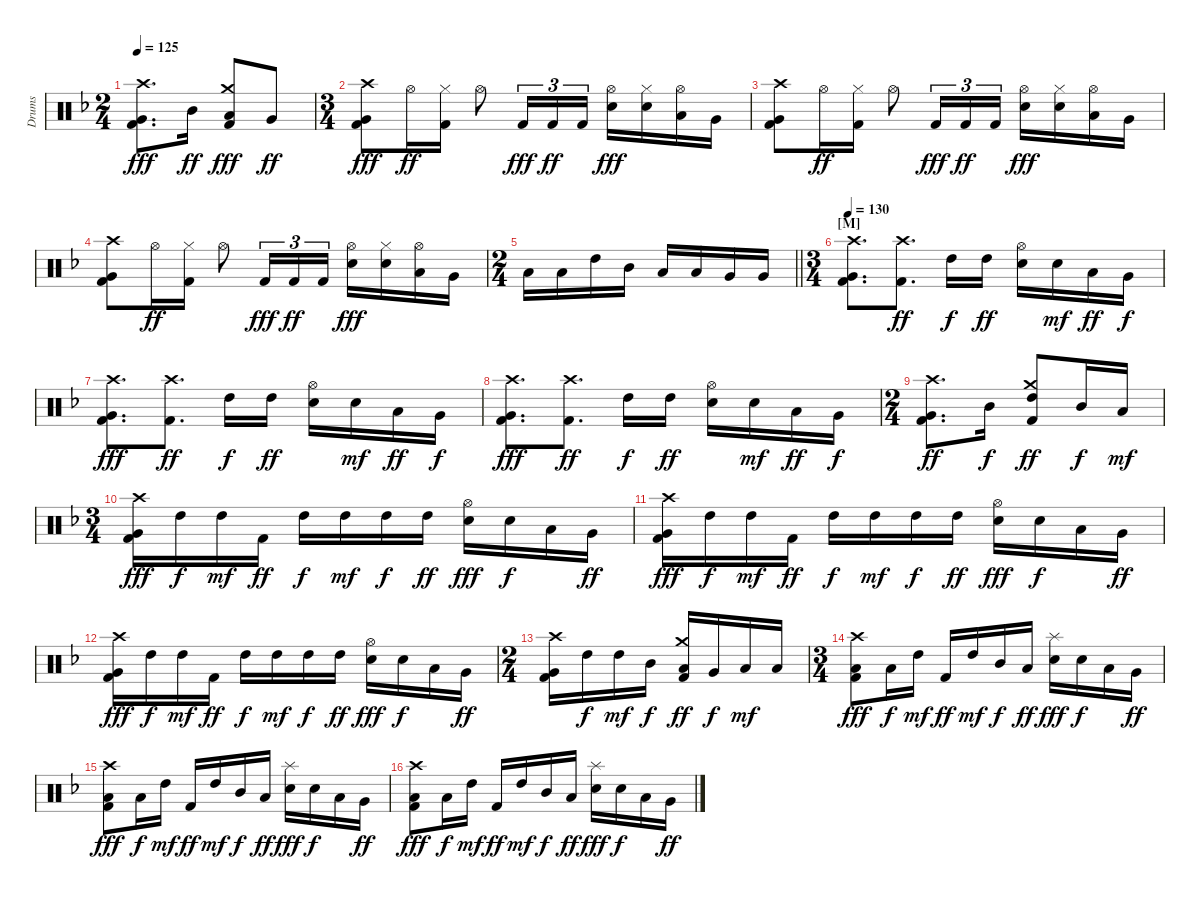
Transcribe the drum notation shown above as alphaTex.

\track ("Drums" "Drums") {instrument percussion}
\staff {score}
\articulation defaults
\ts (2 4)
\tempo 125
\clef neutral
\ks dminor
("Crash high (hit)" "Very Low Tom (hit)" "Kick (hit) 2").8{d dy fff} "Mid Tom (hit)".16{dy ff} ("Crash medium (hit)" "Low Tom (hit)" "Kick (hit) 2").8{dy fff} "Very Low Tom (hit)".8{dy ff} |
\ts (3 4)
("Crash high (hit)" "Very Low Tom (hit)" "Kick (hit) 2").8{dy fff} "Hi-Hat (open)".16{dy ff} ("Hi-Hat (closed)" "Kick (hit) 2").16 "Hi-Hat (open)".8 "Kick (hit) 2".16{tu (3 2) dy fff} "Kick (hit) 2".16{tu (3 2) dy ff} "Kick (hit) 2".16{tu (3 2)} ("Hi-Hat (open)" "Snare (hit) 2").16{dy fff} ("Hi-Hat (closed)" "Snare (hit) 2").16 ("Hi-Hat (open)" "Low Tom (hit)").16 "Very Low Tom (hit)".16 |
("Crash high (hit)" "Very Low Tom (hit)" "Kick (hit) 2").8 "Hi-Hat (open)".16{dy ff} ("Hi-Hat (closed)" "Kick (hit) 2").16 "Hi-Hat (open)".8 "Kick (hit) 2".16{tu (3 2) dy fff} "Kick (hit) 2".16{tu (3 2) dy ff} "Kick (hit) 2".16{tu (3 2)} ("Hi-Hat (open)" "Snare (hit) 2").16{dy fff} ("Hi-Hat (closed)" "Snare (hit) 2").16 ("Hi-Hat (open)" "Low Tom (hit)").16 "Very Low Tom (hit)".16 |
("Crash high (hit)" "Very Low Tom (hit)" "Kick (hit) 2").8 "Hi-Hat (open)".16{dy ff} ("Hi-Hat (closed)" "Kick (hit) 2").16 "Hi-Hat (open)".8 "Kick (hit) 2".16{tu (3 2) dy fff} "Kick (hit) 2".16{tu (3 2) dy ff} "Kick (hit) 2".16{tu (3 2)} ("Hi-Hat (open)" "Snare (hit) 2").16{dy fff} ("Hi-Hat (closed)" "Snare (hit) 2").16 ("Hi-Hat (open)" "Low Tom (hit)").16 "Very Low Tom (hit)".16 |
\ts (2 4)
\barLineRight lightlight "Low Tom (hit)".16 "Low Tom (hit)".16 "High Tom (hit)".16 "Mid Tom (hit)".16 "Low Tom (hit)".16 "Low Tom (hit)".16 "Very Low Tom (hit)".16 "Very Low Tom (hit)".16
|
\ts (3 4)
\section ("" "[M]")
\tempo 130
("Crash high (hit)" "Very Low Tom (hit)" "Kick (hit) 2").8{d} ("Crash high (hit)" "Kick (hit) 2").8{d dy ff} "High Tom (hit)".16{dy f} "High Tom (hit)".16{dy ff} ("Hi-Hat (open)" "Snare (hit) 2").16 "Snare (hit) 2".16{dy mf} "Low Tom (hit)".16{dy ff} "Very Low Tom (hit)".16{dy f} |
("Crash high (hit)" "Very Low Tom (hit)" "Kick (hit) 2").8{d dy fff} ("Crash high (hit)" "Kick (hit) 2").8{d dy ff} "High Tom (hit)".16{dy f} "High Tom (hit)".16{dy ff} ("Hi-Hat (open)" "Snare (hit) 2").16 "Snare (hit) 2".16{dy mf} "Low Tom (hit)".16{dy ff} "Very Low Tom (hit)".16{dy f} |
("Crash high (hit)" "Very Low Tom (hit)" "Kick (hit) 2").8{d dy fff} ("Crash high (hit)" "Kick (hit) 2").8{d dy ff} "High Tom (hit)".16{dy f} "High Tom (hit)".16{dy ff} ("Hi-Hat (open)" "Snare (hit) 2").16 "Snare (hit) 2".16{dy mf} "Low Tom (hit)".16{dy ff} "Very Low Tom (hit)".16{dy f} |
\ts (2 4)
("Crash high (hit)" "Very Low Tom (hit)" "Kick (hit) 2").8{d dy ff} "Mid Tom (hit)".16{dy f} ("Crash medium (hit)" "High Tom (hit)" "Kick (hit) 2").8{dy ff} "Mid Tom (hit)".16{dy f} "Low Tom (hit)".16{dy mf} |
\ts (3 4)
("Crash high (hit)" "Very Low Tom (hit)" "Kick (hit) 2").16{dy fff} "High Tom (hit)".16{dy f} "High Tom (hit)".16{dy mf} "Kick (hit) 2".16{dy ff} "High Tom (hit)".16{dy f} "High Tom (hit)".16{dy mf} "High Tom (hit)".16{dy f} "High Tom (hit)".16{dy ff} ("Hi-Hat (open)" "Snare (hit) 2").16{dy fff} "Snare (hit) 2".16{dy f} "Low Tom (hit)".16 "Very Low Tom (hit)".16{dy ff} |
("Crash high (hit)" "Very Low Tom (hit)" "Kick (hit) 2").16{dy fff} "High Tom (hit)".16{dy f} "High Tom (hit)".16{dy mf} "Kick (hit) 2".16{dy ff} "High Tom (hit)".16{dy f} "High Tom (hit)".16{dy mf} "High Tom (hit)".16{dy f} "High Tom (hit)".16{dy ff} ("Hi-Hat (open)" "Snare (hit) 2").16{dy fff} "Snare (hit) 2".16{dy f} "Low Tom (hit)".16 "Very Low Tom (hit)".16{dy ff} |
("Crash high (hit)" "Very Low Tom (hit)" "Kick (hit) 2").16{dy fff} "High Tom (hit)".16{dy f} "High Tom (hit)".16{dy mf} "Kick (hit) 2".16{dy ff} "High Tom (hit)".16{dy f} "High Tom (hit)".16{dy mf} "High Tom (hit)".16{dy f} "High Tom (hit)".16{dy ff} ("Hi-Hat (open)" "Snare (hit) 2").16{dy fff} "Snare (hit) 2".16{dy f} "Low Tom (hit)".16 "Very Low Tom (hit)".16{dy ff} |
\ts (2 4)
("Crash high (hit)" "Very Low Tom (hit)" "Kick (hit) 2").16 "High Tom (hit)".16{dy f} "High Tom (hit)".16{dy mf} "Mid Tom (hit)".16{dy f} ("Crash medium (hit)" "Low Tom (hit)" "Kick (hit) 2").16{dy ff} "Very Low Tom (hit)".16{dy f} "Low Floor Tom (hit)".16{dy mf} "Low Floor Tom (hit)".16 |
\ts (3 4)
("Crash high (hit)" "Low Floor Tom (hit)" "Kick (hit) 2").8{dy fff} "Low Tom (hit)".16{dy f} "High Tom (hit)".16{dy mf} "Kick (hit) 2".16{dy ff} "High Tom (hit)".16{dy mf} "Mid Tom (hit)".16{dy f} "Low Tom (hit)".16{dy ff} ("Splash (hit)" "Snare (hit) 2").16{dy fff} "Snare (hit) 2".16{dy f} "Low Tom (hit)".16 "Very Low Tom (hit)".16{dy ff} |
("Crash high (hit)" "Low Floor Tom (hit)" "Kick (hit) 2").8{dy fff} "Low Tom (hit)".16{dy f} "High Tom (hit)".16{dy mf} "Kick (hit) 2".16{dy ff} "High Tom (hit)".16{dy mf} "Mid Tom (hit)".16{dy f} "Low Tom (hit)".16{dy ff} ("Splash (hit)" "Snare (hit) 2").16{dy fff} "Snare (hit) 2".16{dy f} "Low Tom (hit)".16 "Very Low Tom (hit)".16{dy ff} |
("Crash high (hit)" "Low Floor Tom (hit)" "Kick (hit) 2").8{dy fff} "Low Tom (hit)".16{dy f} "High Tom (hit)".16{dy mf} "Kick (hit) 2".16{dy ff} "High Tom (hit)".16{dy mf} "Mid Tom (hit)".16{dy f} "Low Tom (hit)".16{dy ff} ("Splash (hit)" "Snare (hit) 2").16{dy fff} "Snare (hit) 2".16{dy f} "Low Tom (hit)".16 "Very Low Tom (hit)".16{dy ff}
